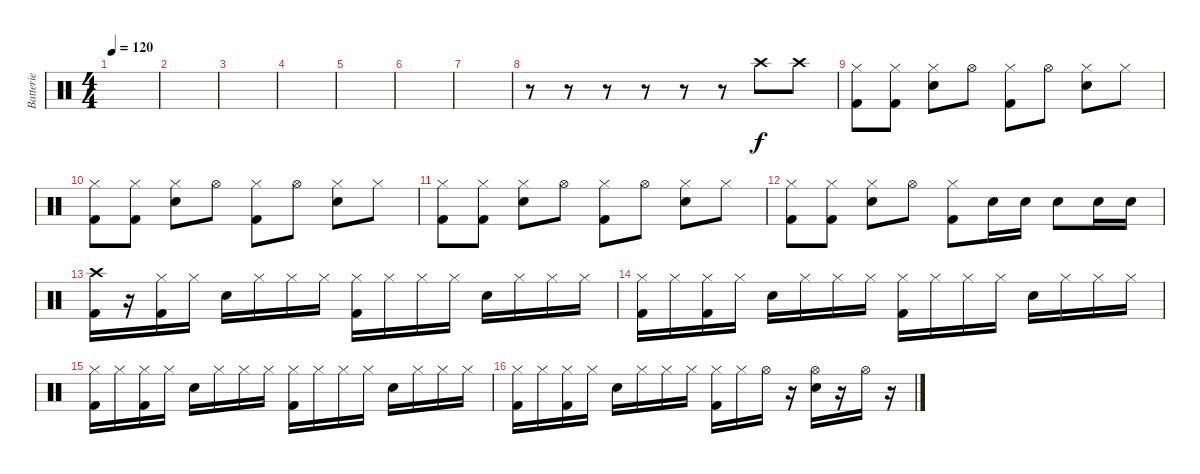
\track ("Batterie" "Batterie") {instrument percussion}
\staff {score}
\articulation defaults
\ts (4 4)
\tempo 120
\clef neutral
\ks c
|
|
|
|
|
|
|
r.8 r.8 r.8 r.8 r.8 r.8 "Crash high (hit)".8 "Crash high (hit)".8 |
("Hi-Hat (closed)" "Kick (hit) 2").8 ("Hi-Hat (closed)" "Kick (hit) 2").8 ("Hi-Hat (closed)" "Snare (hit) 2").8 "Hi-Hat (open)".8 ("Hi-Hat (closed)" "Kick (hit) 2").8 "Hi-Hat (open)".8 ("Hi-Hat (closed)" "Snare (hit) 2").8 "Hi-Hat (closed)".8 |
("Hi-Hat (closed)" "Kick (hit) 2").8 ("Hi-Hat (closed)" "Kick (hit) 2").8 ("Hi-Hat (closed)" "Snare (hit) 2").8 "Hi-Hat (open)".8 ("Hi-Hat (closed)" "Kick (hit) 2").8 "Hi-Hat (open)".8 ("Hi-Hat (closed)" "Snare (hit) 2").8 "Hi-Hat (closed)".8 |
("Hi-Hat (closed)" "Kick (hit) 2").8 ("Hi-Hat (closed)" "Kick (hit) 2").8 ("Hi-Hat (closed)" "Snare (hit) 2").8 "Hi-Hat (open)".8 ("Hi-Hat (closed)" "Kick (hit) 2").8 "Hi-Hat (open)".8 ("Hi-Hat (closed)" "Snare (hit) 2").8 "Hi-Hat (closed)".8 |
("Hi-Hat (closed)" "Kick (hit) 2").8 ("Hi-Hat (closed)" "Kick (hit) 2").8 ("Hi-Hat (closed)" "Snare (hit) 2").8 "Hi-Hat (open)".8 ("Hi-Hat (closed)" "Kick (hit) 2").8 "Snare (hit) 2".16 "Snare (hit) 2".16 "Snare (hit) 2".8 "Snare (hit) 2".16 "Snare (hit) 2".16 |
("Crash high (hit)" "Kick (hit) 2").16 r.16 ("Hi-Hat (closed)" "Kick (hit) 2").16 "Hi-Hat (closed)".16 "Snare (hit) 2".16 "Hi-Hat (closed)".16 "Hi-Hat (closed)".16 "Hi-Hat (closed)".16 ("Hi-Hat (closed)" "Kick (hit) 2").16 "Hi-Hat (closed)".16 "Hi-Hat (closed)".16 "Hi-Hat (closed)".16 "Snare (hit) 2".16 "Hi-Hat (closed)".16 "Hi-Hat (closed)".16 "Hi-Hat (closed)".16 |
("Hi-Hat (closed)" "Kick (hit) 2").16 "Hi-Hat (closed)".16 ("Hi-Hat (closed)" "Kick (hit) 2").16 "Hi-Hat (closed)".16 "Snare (hit) 2".16 "Hi-Hat (closed)".16 "Hi-Hat (closed)".16 "Hi-Hat (closed)".16 ("Hi-Hat (closed)" "Kick (hit) 2").16 "Hi-Hat (closed)".16 "Hi-Hat (closed)".16 "Hi-Hat (closed)".16 "Snare (hit) 2".16 "Hi-Hat (closed)".16 "Hi-Hat (closed)".16 "Hi-Hat (closed)".16 |
("Hi-Hat (closed)" "Kick (hit) 2").16 "Hi-Hat (closed)".16 ("Hi-Hat (closed)" "Kick (hit) 2").16 "Hi-Hat (closed)".16 "Snare (hit) 2".16 "Hi-Hat (closed)".16 "Hi-Hat (closed)".16 "Hi-Hat (closed)".16 ("Hi-Hat (closed)" "Kick (hit) 2").16 "Hi-Hat (closed)".16 "Hi-Hat (closed)".16 "Hi-Hat (closed)".16 "Snare (hit) 2".16 "Hi-Hat (closed)".16 "Hi-Hat (closed)".16 "Hi-Hat (closed)".16 |
("Hi-Hat (closed)" "Kick (hit) 2").16 "Hi-Hat (closed)".16 ("Hi-Hat (closed)" "Kick (hit) 2").16 "Hi-Hat (closed)".16 "Snare (hit) 2".16 "Hi-Hat (closed)".16 "Hi-Hat (closed)".16 "Hi-Hat (closed)".16 ("Hi-Hat (closed)" "Kick (hit) 2").16 "Hi-Hat (closed)".16 "Hi-Hat (open)".16 r.16 ("Hi-Hat (open)" "Snare (hit) 2").16 r.16 "Hi-Hat (open)".16 r.16
